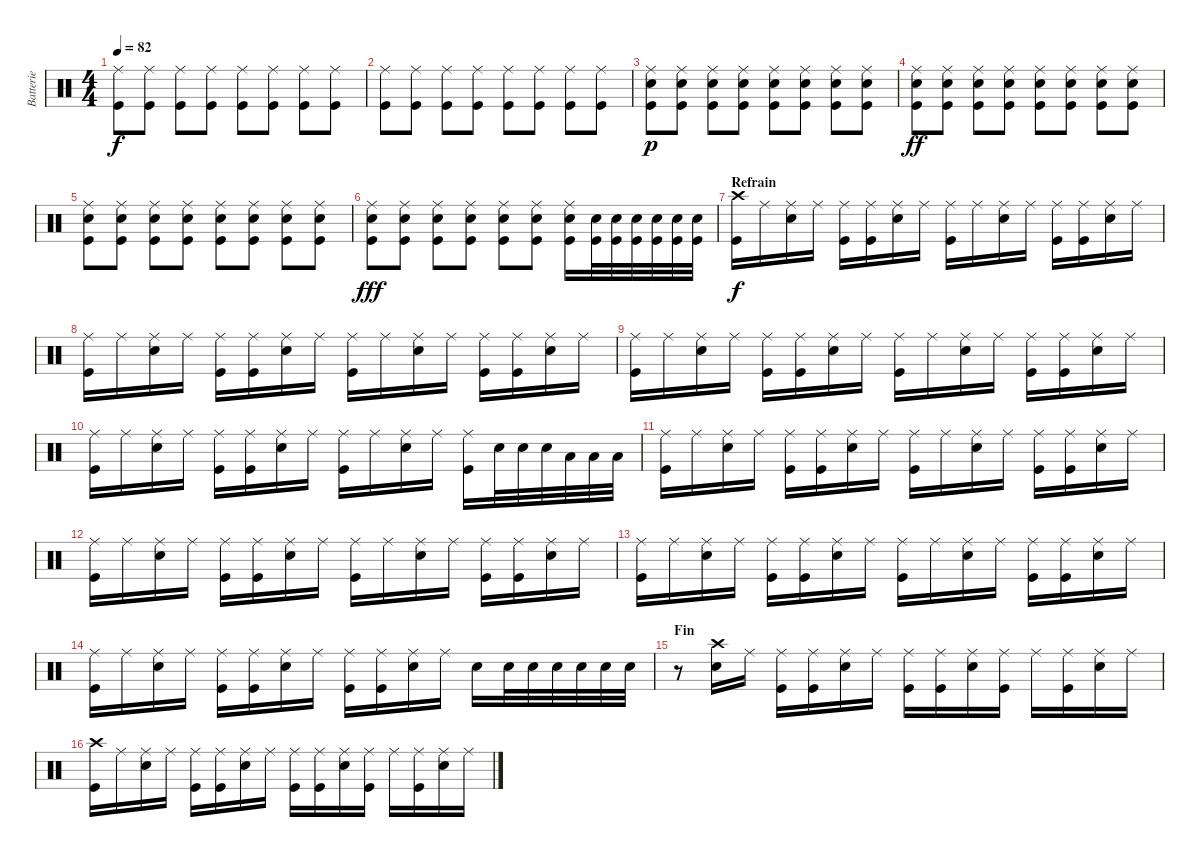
\track ("Batterie" "Batterie") {instrument percussion}
\staff {score}
\articulation defaults
\ts (4 4)
\tempo 82
\clef neutral
\ks c
("Ride (middle)" "Kick (hit)").8{dy f} ("Ride (middle)" "Kick (hit)").8 ("Ride (middle)" "Kick (hit)").8 ("Ride (middle)" "Kick (hit)").8 ("Ride (middle)" "Kick (hit)").8 ("Ride (middle)" "Kick (hit)").8 ("Ride (middle)" "Kick (hit)").8 ("Ride (middle)" "Kick (hit)").8 |
("Ride (middle)" "Kick (hit)").8 ("Ride (middle)" "Kick (hit)").8 ("Ride (middle)" "Kick (hit)").8 ("Ride (middle)" "Kick (hit)").8 ("Ride (middle)" "Kick (hit)").8 ("Ride (middle)" "Kick (hit)").8 ("Ride (middle)" "Kick (hit)").8 ("Ride (middle)" "Kick (hit)").8 |
("Ride (middle)" "Snare (hit) 2" "Kick (hit)").8{dy p} ("Ride (middle)" "Snare (hit) 2" "Kick (hit)").8 ("Ride (middle)" "Snare (hit) 2" "Kick (hit)").8 ("Ride (middle)" "Snare (hit) 2" "Kick (hit)").8 ("Ride (middle)" "Snare (hit) 2" "Kick (hit)").8 ("Ride (middle)" "Snare (hit) 2" "Kick (hit)").8 ("Ride (middle)" "Snare (hit) 2" "Kick (hit)").8 ("Ride (middle)" "Snare (hit) 2" "Kick (hit)").8 |
("Ride (middle)" "Snare (hit) 2" "Kick (hit)").8{dy ff} ("Ride (middle)" "Snare (hit) 2" "Kick (hit)").8 ("Ride (middle)" "Snare (hit) 2" "Kick (hit)").8 ("Ride (middle)" "Snare (hit) 2" "Kick (hit)").8 ("Ride (middle)" "Snare (hit) 2" "Kick (hit)").8 ("Ride (middle)" "Snare (hit) 2" "Kick (hit)").8 ("Ride (middle)" "Snare (hit) 2" "Kick (hit)").8 ("Ride (middle)" "Snare (hit) 2" "Kick (hit)").8 |
("Ride (middle)" "Snare (hit) 2" "Kick (hit)").8 ("Ride (middle)" "Snare (hit) 2" "Kick (hit)").8 ("Ride (middle)" "Snare (hit) 2" "Kick (hit)").8 ("Ride (middle)" "Snare (hit) 2" "Kick (hit)").8 ("Ride (middle)" "Snare (hit) 2" "Kick (hit)").8 ("Ride (middle)" "Snare (hit) 2" "Kick (hit)").8 ("Ride (middle)" "Snare (hit) 2" "Kick (hit)").8 ("Ride (middle)" "Snare (hit) 2" "Kick (hit)").8 |
("Ride (middle)" "Snare (hit) 2" "Kick (hit)").8{dy fff} ("Ride (middle)" "Snare (hit) 2" "Kick (hit)").8 ("Ride (middle)" "Snare (hit) 2" "Kick (hit)").8 ("Ride (middle)" "Snare (hit) 2" "Kick (hit)").8 ("Ride (middle)" "Snare (hit) 2" "Kick (hit)").8 ("Ride (middle)" "Snare (hit) 2" "Kick (hit)").8 ("Ride (middle)" "Snare (hit) 2" "Kick (hit)").16 ("Snare (hit) 2" "Kick (hit)").32 ("Snare (hit) 2" "Kick (hit)").32 ("Snare (hit) 2" "Kick (hit)").32 ("Snare (hit) 2" "Kick (hit)").32 ("Snare (hit) 2" "Kick (hit)").32 ("Snare (hit) 2" "Kick (hit)").32 |
\section ("" "Refrain")
("Crash high (hit)" "Kick (hit)").16{dy f} "Ride (middle)".16 ("Ride (middle)" "Snare (hit) 2").16 "Ride (middle)".16 ("Ride (middle)" "Kick (hit)").16 ("Ride (middle)" "Kick (hit)").16 ("Ride (middle)" "Snare (hit) 2").16 "Ride (middle)".16 ("Ride (middle)" "Kick (hit)").16 "Ride (middle)".16 ("Ride (middle)" "Snare (hit) 2").16 "Ride (middle)".16 ("Ride (middle)" "Kick (hit)").16 ("Ride (middle)" "Kick (hit)").16 ("Ride (middle)" "Snare (hit) 2").16 "Ride (middle)".16 |
("Ride (middle)" "Kick (hit)").16 "Ride (middle)".16 ("Ride (middle)" "Snare (hit) 2").16 "Ride (middle)".16 ("Ride (middle)" "Kick (hit)").16 ("Ride (middle)" "Kick (hit)").16 ("Ride (middle)" "Snare (hit) 2").16 "Ride (middle)".16 ("Ride (middle)" "Kick (hit)").16 "Ride (middle)".16 ("Ride (middle)" "Snare (hit) 2").16 "Ride (middle)".16 ("Ride (middle)" "Kick (hit)").16 ("Ride (middle)" "Kick (hit)").16 ("Ride (middle)" "Snare (hit) 2").16 "Ride (middle)".16 |
("Ride (middle)" "Kick (hit)").16 "Ride (middle)".16 ("Ride (middle)" "Snare (hit) 2").16 "Ride (middle)".16 ("Ride (middle)" "Kick (hit)").16 ("Ride (middle)" "Kick (hit)").16 ("Ride (middle)" "Snare (hit) 2").16 "Ride (middle)".16 ("Ride (middle)" "Kick (hit)").16 "Ride (middle)".16 ("Ride (middle)" "Snare (hit) 2").16 "Ride (middle)".16 ("Ride (middle)" "Kick (hit)").16 ("Ride (middle)" "Kick (hit)").16 ("Ride (middle)" "Snare (hit) 2").16 "Ride (middle)".16 |
("Ride (middle)" "Kick (hit)").16 "Ride (middle)".16 ("Ride (middle)" "Snare (hit) 2").16 "Ride (middle)".16 ("Ride (middle)" "Kick (hit)").16 ("Ride (middle)" "Kick (hit)").16 ("Ride (middle)" "Snare (hit) 2").16 "Ride (middle)".16 ("Ride (middle)" "Kick (hit)").16 "Ride (middle)".16 ("Ride (middle)" "Snare (hit) 2").16 "Ride (middle)".16 ("Ride (middle)" "Kick (hit)").16 "Snare (hit) 2".32 "Snare (hit) 2".32 "Snare (hit) 2".32 "Low Tom (hit)".32 "Low Tom (hit)".32 "Low Tom (hit)".32 |
("Ride (middle)" "Kick (hit)").16 "Ride (middle)".16 ("Ride (middle)" "Snare (hit) 2").16 "Ride (middle)".16 ("Ride (middle)" "Kick (hit)").16 ("Ride (middle)" "Kick (hit)").16 ("Ride (middle)" "Snare (hit) 2").16 "Ride (middle)".16 ("Ride (middle)" "Kick (hit)").16 "Ride (middle)".16 ("Ride (middle)" "Snare (hit) 2").16 "Ride (middle)".16 ("Ride (middle)" "Kick (hit)").16 ("Ride (middle)" "Kick (hit)").16 ("Ride (middle)" "Snare (hit) 2").16 "Ride (middle)".16 |
("Ride (middle)" "Kick (hit)").16 "Ride (middle)".16 ("Ride (middle)" "Snare (hit) 2").16 "Ride (middle)".16 ("Ride (middle)" "Kick (hit)").16 ("Ride (middle)" "Kick (hit)").16 ("Ride (middle)" "Snare (hit) 2").16 "Ride (middle)".16 ("Ride (middle)" "Kick (hit)").16 "Ride (middle)".16 ("Ride (middle)" "Snare (hit) 2").16 "Ride (middle)".16 ("Ride (middle)" "Kick (hit)").16 ("Ride (middle)" "Kick (hit)").16 ("Ride (middle)" "Snare (hit) 2").16 "Ride (middle)".16 |
("Ride (middle)" "Kick (hit)").16 "Ride (middle)".16 ("Ride (middle)" "Snare (hit) 2").16 "Ride (middle)".16 ("Ride (middle)" "Kick (hit)").16 ("Ride (middle)" "Kick (hit)").16 ("Ride (middle)" "Snare (hit) 2").16 "Ride (middle)".16 ("Ride (middle)" "Kick (hit)").16 "Ride (middle)".16 ("Ride (middle)" "Snare (hit) 2").16 "Ride (middle)".16 ("Ride (middle)" "Kick (hit)").16 ("Ride (middle)" "Kick (hit)").16 ("Ride (middle)" "Snare (hit) 2").16 "Ride (middle)".16 |
("Ride (middle)" "Kick (hit)").16 "Ride (middle)".16 ("Ride (middle)" "Snare (hit) 2").16 "Ride (middle)".16 ("Ride (middle)" "Kick (hit)").16 ("Ride (middle)" "Kick (hit)").16 ("Ride (middle)" "Snare (hit) 2").16 "Ride (middle)".16 ("Ride (middle)" "Kick (hit)").16 ("Ride (middle)" "Kick (hit)").16 ("Ride (middle)" "Snare (hit) 2").16 "Ride (middle)".16 "Snare (hit) 2".16 "Snare (hit) 2".32 "Snare (hit) 2".32 "Snare (hit) 2".32 "Snare (hit) 2".32 "Snare (hit) 2".32 "Snare (hit) 2".32 |
\section ("" "Fin")
r.8 ("Crash high (hit)" "Snare (hit) 2").16 "Ride (middle)".16 ("Ride (middle)" "Kick (hit)").16 ("Ride (middle)" "Kick (hit)").16 ("Ride (middle)" "Snare (hit) 2").16 "Ride (middle)".16 ("Ride (middle)" "Kick (hit)").16 ("Ride (middle)" "Kick (hit)").16 ("Ride (middle)" "Snare (hit) 2").16 ("Ride (middle)" "Kick (hit)").16 "Ride (middle)".16 ("Ride (middle)" "Kick (hit)").16 ("Ride (middle)" "Snare (hit) 2").16 "Ride (middle)".16 |
("Crash high (hit)" "Kick (hit)").16 "Ride (middle)".16 ("Ride (middle)" "Snare (hit) 2").16 "Ride (middle)".16 ("Ride (middle)" "Kick (hit)").16 ("Ride (middle)" "Kick (hit)").16 ("Ride (middle)" "Snare (hit) 2").16 "Ride (middle)".16 ("Ride (middle)" "Kick (hit)").16 ("Ride (middle)" "Kick (hit)").16 ("Ride (middle)" "Snare (hit) 2").16 ("Ride (middle)" "Kick (hit)").16 "Ride (middle)".16 ("Ride (middle)" "Kick (hit)").16 ("Ride (middle)" "Snare (hit) 2").16 "Ride (middle)".16
